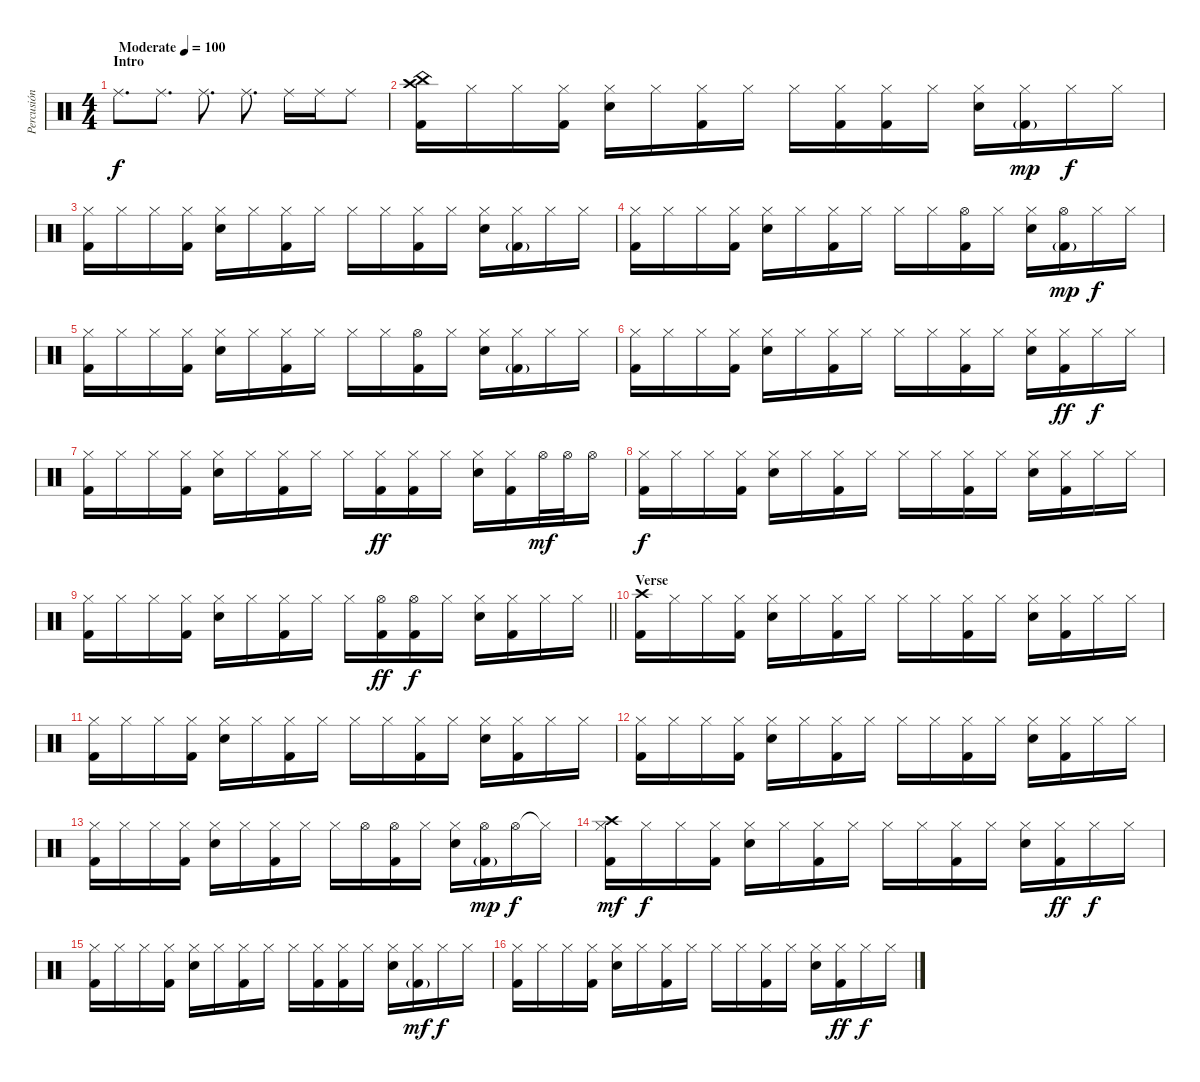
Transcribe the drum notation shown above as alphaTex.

\track ("Percusión" "Percusión") {instrument percussion}
\staff {score}
\articulation defaults
\ts (4 4)
\section ("" "Intro")
\tempo (100 "Moderate")
\clef neutral
\ks c "Ride (middle)".8{d dy f} "Ride (middle)".8{d} "Ride (middle)".8{d} "Ride (middle)".8{d} "Ride (middle)".16 "Ride (middle)".16 "Ride (middle)".8
|
("China (hit)" "Kick (hit) 2" "Crash high (hit)").16 "Hi-Hat (closed)".16 "Hi-Hat (closed)".16 ("Kick (hit) 2" "Hi-Hat (closed)").16 ("Snare (hit) 2" "Hi-Hat (closed)").16 "Hi-Hat (closed)".16 ("Kick (hit) 2" "Hi-Hat (closed)").16 "Hi-Hat (closed)".16 "Hi-Hat (closed)".16 ("Kick (hit) 2" "Hi-Hat (closed)").16 ("Kick (hit) 2" "Hi-Hat (closed)").16 "Hi-Hat (closed)".16 ("Snare (hit) 2" "Hi-Hat (closed)").16 ("Kick (hit) 2"{g} "Hi-Hat (closed)").16{dy mp} "Hi-Hat (closed)".16{dy f} "Hi-Hat (closed)".16 |
("Kick (hit) 2" "Hi-Hat (closed)").16 "Hi-Hat (closed)".16 "Hi-Hat (closed)".16 ("Kick (hit) 2" "Hi-Hat (closed)").16 ("Snare (hit) 2" "Hi-Hat (closed)").16 "Hi-Hat (closed)".16 ("Kick (hit) 2" "Hi-Hat (closed)").16 "Hi-Hat (closed)".16 "Hi-Hat (closed)".16 "Hi-Hat (closed)".16 ("Kick (hit) 2" "Hi-Hat (closed)").16 "Hi-Hat (closed)".16 ("Snare (hit) 2" "Hi-Hat (closed)").16 ("Kick (hit) 2"{g} "Hi-Hat (closed)").16 "Hi-Hat (closed)".16 "Hi-Hat (closed)".16 |
("Kick (hit) 2" "Hi-Hat (closed)").16 "Hi-Hat (closed)".16 "Hi-Hat (closed)".16 ("Kick (hit) 2" "Hi-Hat (closed)").16 ("Snare (hit) 2" "Hi-Hat (closed)").16 "Hi-Hat (closed)".16 ("Kick (hit) 2" "Hi-Hat (closed)").16 "Hi-Hat (closed)".16 "Hi-Hat (closed)".16 "Hi-Hat (closed)".16 ("Kick (hit) 2" "Hi-Hat (open)").16 "Hi-Hat (closed)".16 ("Snare (hit) 2" "Hi-Hat (closed)").16 ("Kick (hit) 2"{g} "Hi-Hat (open)").16{dy mp} "Hi-Hat (closed)".16{dy f} "Hi-Hat (closed)".16 |
("Kick (hit) 2" "Hi-Hat (closed)").16 "Hi-Hat (closed)".16 "Hi-Hat (closed)".16 ("Kick (hit) 2" "Hi-Hat (closed)").16 ("Snare (hit) 2" "Hi-Hat (closed)").16 "Hi-Hat (closed)".16 ("Kick (hit) 2" "Hi-Hat (closed)").16 "Hi-Hat (closed)".16 "Hi-Hat (closed)".16 "Hi-Hat (closed)".16 ("Kick (hit) 2" "Hi-Hat (open)").16 "Hi-Hat (closed)".16 ("Snare (hit) 2" "Hi-Hat (closed)").16 ("Kick (hit) 2"{g} "Hi-Hat (closed)").16 "Hi-Hat (closed)".16 "Hi-Hat (closed)".16 |
("Kick (hit) 2" "Hi-Hat (closed)").16 "Hi-Hat (closed)".16 "Hi-Hat (closed)".16 ("Kick (hit) 2" "Hi-Hat (closed)").16 ("Snare (hit) 2" "Hi-Hat (closed)").16 "Hi-Hat (closed)".16 ("Kick (hit) 2" "Hi-Hat (closed)").16 "Hi-Hat (closed)".16 "Hi-Hat (closed)".16 "Hi-Hat (closed)".16 ("Kick (hit) 2" "Hi-Hat (closed)").16 "Hi-Hat (closed)".16 ("Snare (hit) 2" "Hi-Hat (closed)").16 ("Kick (hit) 2" "Hi-Hat (closed)").16{dy ff} "Hi-Hat (closed)".16{dy f} "Hi-Hat (closed)".16 |
("Kick (hit) 2" "Hi-Hat (closed)").16 "Hi-Hat (closed)".16 "Hi-Hat (closed)".16 ("Kick (hit) 2" "Hi-Hat (closed)").16 ("Snare (hit) 2" "Hi-Hat (closed)").16 "Hi-Hat (closed)".16 ("Kick (hit) 2" "Hi-Hat (closed)").16 "Hi-Hat (closed)".16 "Hi-Hat (closed)".16 ("Kick (hit) 2" "Hi-Hat (closed)").16{dy ff} ("Kick (hit) 2" "Hi-Hat (closed)").16 "Hi-Hat (closed)".16 ("Snare (hit) 2" "Hi-Hat (closed)").16 ("Kick (hit) 2" "Hi-Hat (closed)").16 "Hi-Hat (open)".32{dy mf} "Hi-Hat (open)".32 "Hi-Hat (open)".16 |
("Kick (hit) 2" "Hi-Hat (closed)").16{dy f} "Hi-Hat (closed)".16 "Hi-Hat (closed)".16 ("Kick (hit) 2" "Hi-Hat (closed)").16 ("Snare (hit) 2" "Hi-Hat (closed)").16 "Hi-Hat (closed)".16 ("Kick (hit) 2" "Hi-Hat (closed)").16 "Hi-Hat (closed)".16 "Hi-Hat (closed)".16 "Hi-Hat (closed)".16 ("Kick (hit) 2" "Hi-Hat (closed)").16 "Hi-Hat (closed)".16 ("Snare (hit) 2" "Hi-Hat (closed)").16 ("Kick (hit) 2" "Hi-Hat (closed)").16 "Hi-Hat (closed)".16 "Hi-Hat (closed)".16 |
\barLineRight lightlight
("Kick (hit) 2" "Hi-Hat (closed)").16 "Hi-Hat (closed)".16 "Hi-Hat (closed)".16 ("Kick (hit) 2" "Hi-Hat (closed)").16 ("Snare (hit) 2" "Hi-Hat (closed)").16 "Hi-Hat (closed)".16 ("Kick (hit) 2" "Hi-Hat (closed)").16 "Hi-Hat (closed)".16 "Hi-Hat (closed)".16 ("Kick (hit) 2" "Hi-Hat (open)").16{dy ff} ("Kick (hit) 2" "Hi-Hat (open)").16{dy f} "Hi-Hat (closed)".16 ("Snare (hit) 2" "Hi-Hat (closed)").16 ("Kick (hit) 2" "Hi-Hat (closed)").16 "Hi-Hat (closed)".16 "Hi-Hat (closed)".16 |
\section ("" "Verse")
("Kick (hit) 2" "Crash high (hit)").16 "Hi-Hat (closed)".16 "Hi-Hat (closed)".16 ("Kick (hit) 2" "Hi-Hat (closed)").16 ("Snare (hit) 2" "Hi-Hat (closed)").16 "Hi-Hat (closed)".16 ("Kick (hit) 2" "Hi-Hat (closed)").16 "Hi-Hat (closed)".16 "Hi-Hat (closed)".16 "Hi-Hat (closed)".16 ("Kick (hit) 2" "Hi-Hat (closed)").16 "Hi-Hat (closed)".16 ("Snare (hit) 2" "Hi-Hat (closed)").16 ("Kick (hit) 2" "Hi-Hat (closed)").16 "Hi-Hat (closed)".16 "Hi-Hat (closed)".16 |
("Kick (hit) 2" "Hi-Hat (closed)").16 "Hi-Hat (closed)".16 "Hi-Hat (closed)".16 ("Kick (hit) 2" "Hi-Hat (closed)").16 ("Snare (hit) 2" "Hi-Hat (closed)").16 "Hi-Hat (closed)".16 ("Kick (hit) 2" "Hi-Hat (closed)").16 "Hi-Hat (closed)".16 "Hi-Hat (closed)".16 "Hi-Hat (closed)".16 ("Kick (hit) 2" "Hi-Hat (closed)").16 "Hi-Hat (closed)".16 ("Snare (hit) 2" "Hi-Hat (closed)").16 ("Kick (hit) 2" "Hi-Hat (closed)").16 "Hi-Hat (closed)".16 "Hi-Hat (closed)".16 |
("Kick (hit) 2" "Hi-Hat (closed)").16 "Hi-Hat (closed)".16 "Hi-Hat (closed)".16 ("Kick (hit) 2" "Hi-Hat (closed)").16 ("Snare (hit) 2" "Hi-Hat (closed)").16 "Hi-Hat (closed)".16 ("Kick (hit) 2" "Hi-Hat (closed)").16 "Hi-Hat (closed)".16 "Hi-Hat (closed)".16 "Hi-Hat (closed)".16 ("Kick (hit) 2" "Hi-Hat (closed)").16 "Hi-Hat (closed)".16 ("Snare (hit) 2" "Hi-Hat (closed)").16 ("Kick (hit) 2" "Hi-Hat (closed)").16 "Hi-Hat (closed)".16 "Hi-Hat (closed)".16 |
("Kick (hit) 2" "Hi-Hat (closed)").16 "Hi-Hat (closed)".16 "Hi-Hat (closed)".16 ("Kick (hit) 2" "Hi-Hat (closed)").16 ("Snare (hit) 2" "Hi-Hat (closed)").16 "Hi-Hat (closed)".16 ("Kick (hit) 2" "Hi-Hat (closed)").16 "Hi-Hat (closed)".16 "Hi-Hat (closed)".16 "Hi-Hat (open)".16 ("Kick (hit) 2" "Hi-Hat (open)").16 "Hi-Hat (closed)".16 ("Snare (hit) 2" "Hi-Hat (closed)").16 ("Kick (hit) 2"{g} "Hi-Hat (open)").16{dy mp} "Hi-Hat (open)".16{dy f} "Hi-Hat (closed)"{t}.16 |
("Crash high (hit)" "Kick (hit) 2" "Hi-Hat (closed)").16{dy mf} "Hi-Hat (closed)".16{dy f} "Hi-Hat (closed)".16 ("Kick (hit) 2" "Hi-Hat (closed)").16 ("Snare (hit) 2" "Hi-Hat (closed)").16 "Hi-Hat (closed)".16 ("Kick (hit) 2" "Hi-Hat (closed)").16 "Hi-Hat (closed)".16 "Hi-Hat (closed)".16 "Hi-Hat (closed)".16 ("Kick (hit) 2" "Hi-Hat (closed)").16 "Hi-Hat (closed)".16 ("Snare (hit) 2" "Hi-Hat (closed)").16 ("Kick (hit) 2" "Hi-Hat (closed)").16{dy ff} "Hi-Hat (closed)".16{dy f} "Hi-Hat (closed)".16 |
("Kick (hit) 2" "Hi-Hat (closed)").16 "Hi-Hat (closed)".16 "Hi-Hat (closed)".16 ("Kick (hit) 2" "Hi-Hat (closed)").16 ("Snare (hit) 2" "Hi-Hat (closed)").16 "Hi-Hat (closed)".16 ("Kick (hit) 2" "Hi-Hat (closed)").16 "Hi-Hat (closed)".16 "Hi-Hat (closed)".16 ("Kick (hit) 2" "Hi-Hat (closed)").16 ("Kick (hit) 2" "Hi-Hat (closed)").16 "Hi-Hat (closed)".16 ("Snare (hit) 2" "Hi-Hat (closed)").16 ("Kick (hit) 2"{g} "Hi-Hat (closed)").16{dy mf} "Hi-Hat (closed)".16{dy f} "Hi-Hat (closed)".16 |
("Kick (hit) 2" "Hi-Hat (closed)").16 "Hi-Hat (closed)".16 "Hi-Hat (closed)".16 ("Kick (hit) 2" "Hi-Hat (closed)").16 ("Snare (hit) 2" "Hi-Hat (closed)").16 "Hi-Hat (closed)".16 ("Kick (hit) 2" "Hi-Hat (closed)").16 "Hi-Hat (closed)".16 "Hi-Hat (closed)".16 "Hi-Hat (closed)".16 ("Kick (hit) 2" "Hi-Hat (closed)").16 "Hi-Hat (closed)".16 ("Snare (hit) 2" "Hi-Hat (closed)").16 ("Kick (hit) 2" "Hi-Hat (closed)").16{dy ff} "Hi-Hat (closed)".16{dy f} "Hi-Hat (closed)".16
